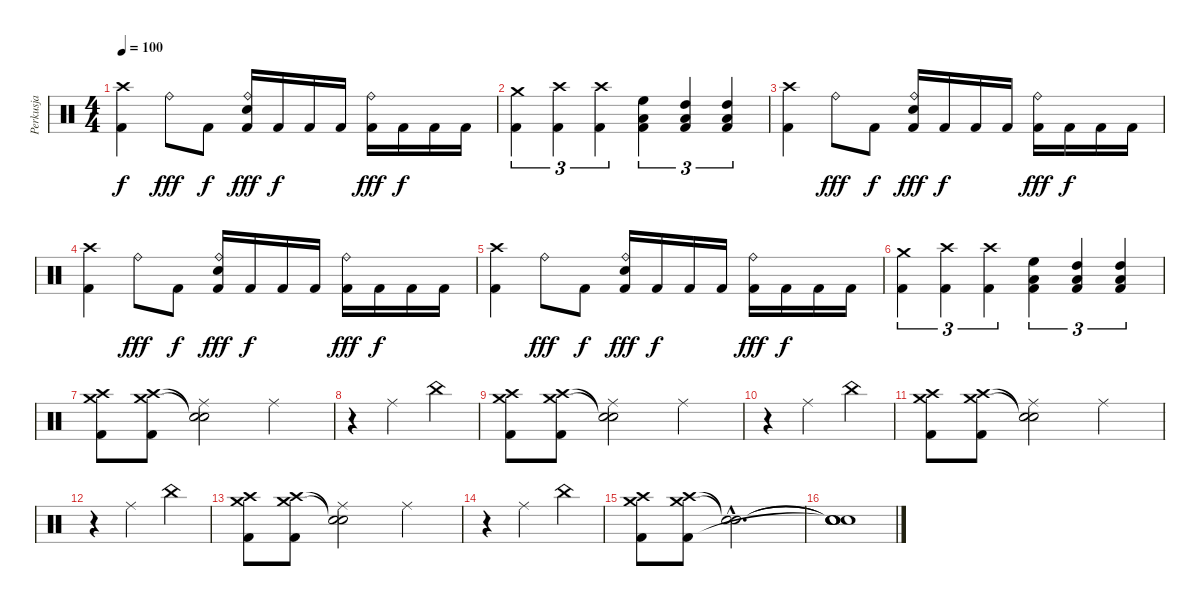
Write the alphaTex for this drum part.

\track ("Perkusja" "Perkusja") {instrument percussion}
\staff {score}
\articulation defaults
\ts (4 4)
\tempo 100
\clef neutral
\ks c
("Crash high (hit)" "Kick (hit) 2").4{dy f} "Ride (bell)".8{dy fff} "Kick (hit) 2".8{dy f} ("Ride (bell)" "Electric Snare (hit)" "Kick (hit) 2").16{dy fff} "Kick (hit) 2".16{dy f} "Kick (hit) 2".16 "Kick (hit) 2".16 ("Ride (bell)" "Kick (hit) 2").16{dy fff} "Kick (hit) 2".16{dy f} "Kick (hit) 2".16 "Kick (hit) 2".16 |
("Crash medium (hit)" "Kick (hit) 2").4{tu (3 2)} ("Crash high (hit)" "Kick (hit) 2").4{tu (3 2)} ("Crash high (hit)" "Kick (hit) 2").4{tu (3 2)} ("Low Floor Tom (hit)" "High Floor Tom (hit)" "Kick (hit) 2").4{tu (3 2)} ("Low Floor Tom (hit)" "High Tom (hit)" "Kick (hit) 2").4{tu (3 2)} ("Low Floor Tom (hit)" "High Tom (hit)" "Kick (hit) 2").4{tu (3 2)} |
("Crash high (hit)" "Kick (hit) 2").4 "Ride (bell)".8{dy fff} "Kick (hit) 2".8{dy f} ("Ride (bell)" "Electric Snare (hit)" "Kick (hit) 2").16{dy fff} "Kick (hit) 2".16{dy f} "Kick (hit) 2".16 "Kick (hit) 2".16 ("Ride (bell)" "Kick (hit) 2").16{dy fff} "Kick (hit) 2".16{dy f} "Kick (hit) 2".16 "Kick (hit) 2".16 |
("Crash high (hit)" "Kick (hit) 2").4 "Ride (bell)".8{dy fff} "Kick (hit) 2".8{dy f} ("Ride (bell)" "Electric Snare (hit)" "Kick (hit) 2").16{dy fff} "Kick (hit) 2".16{dy f} "Kick (hit) 2".16 "Kick (hit) 2".16 ("Ride (bell)" "Kick (hit) 2").16{dy fff} "Kick (hit) 2".16{dy f} "Kick (hit) 2".16 "Kick (hit) 2".16 |
("Crash high (hit)" "Kick (hit) 2").4 "Ride (bell)".8{dy fff} "Kick (hit) 2".8{dy f} ("Ride (bell)" "Electric Snare (hit)" "Kick (hit) 2").16{dy fff} "Kick (hit) 2".16{dy f} "Kick (hit) 2".16 "Kick (hit) 2".16 ("Ride (bell)" "Kick (hit) 2").16{dy fff} "Kick (hit) 2".16{dy f} "Kick (hit) 2".16 "Kick (hit) 2".16 |
("Crash medium (hit)" "Kick (hit) 2").4{tu (3 2)} ("Crash high (hit)" "Kick (hit) 2").4{tu (3 2)} ("Crash high (hit)" "Kick (hit) 2").4{tu (3 2)} ("Low Floor Tom (hit)" "High Floor Tom (hit)" "Kick (hit) 2").4{tu (3 2)} ("Low Floor Tom (hit)" "High Tom (hit)" "Kick (hit) 2").4{tu (3 2)} ("Low Floor Tom (hit)" "High Tom (hit)" "Kick (hit) 2").4{tu (3 2)} |
("Crash high (hit)" "Crash medium (hit)" "Kick (hit) 2").8 ("Crash high (hit)" "Crash medium (hit)" "Kick (hit) 2").8 ("Snare (hit)"{t} "Snare (hit)"{t} "Ride (middle)").2 "Ride (middle)".4 |
r.4 "Ride (middle)".2 "China (hit)".4 |
("Crash high (hit)" "Crash medium (hit)" "Kick (hit) 2").8 ("Crash high (hit)" "Crash medium (hit)" "Kick (hit) 2").8 ("Snare (hit)"{t} "Snare (hit)"{t} "Ride (middle)").2 "Ride (middle)".4 |
r.4 "Ride (middle)".2 "China (hit)".4 |
("Crash high (hit)" "Crash medium (hit)" "Kick (hit) 2").8 ("Crash high (hit)" "Crash medium (hit)" "Kick (hit) 2").8 ("Snare (hit)"{t} "Snare (hit)"{t} "Ride (middle)").2 "Ride (middle)".4 |
r.4 "Ride (middle)".2 "China (hit)".4 |
("Crash high (hit)" "Crash medium (hit)" "Kick (hit) 2").8 ("Crash high (hit)" "Crash medium (hit)" "Kick (hit) 2").8 ("Snare (hit)"{t} "Snare (hit)"{t} "Ride (middle)").2 "Ride (middle)".4 |
r.4 "Ride (middle)".2 "China (hit)".4 |
("Crash high (hit)" "Crash medium (hit)" "Kick (hit) 2").8 ("Crash high (hit)" "Crash medium (hit)" "Kick (hit) 2").8 ("Snare (hit)"{hac t} "Snare (hit)"{hac t}).2{d} |
("Snare (hit)"{t} "Snare (hit)"{t} "Snare (hit)"{t} "Snare (hit)").1
